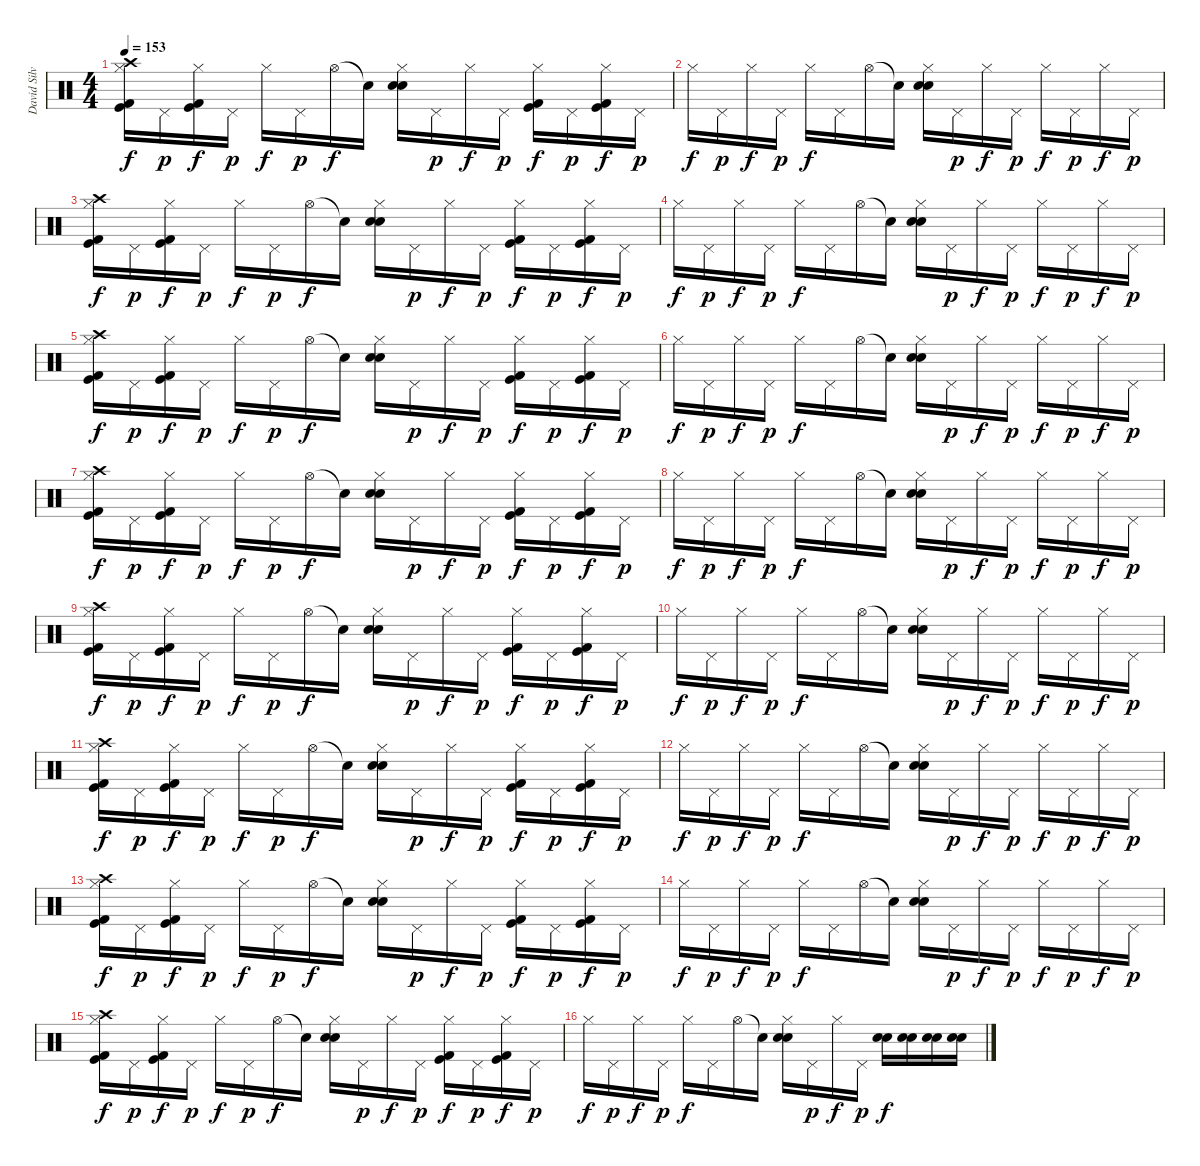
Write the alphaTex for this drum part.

\track ("David Silveria" "David Silv") {instrument percussion}
\staff {score}
\articulation defaults
\ts (4 4)
\tempo 153
\clef neutral
\ks c
("Crash high (hit)" "Hi-Hat (closed)" "Kick (hit) 2" "Kick (hit)").16{dy f} "Pedal Hi-Hat (hit)".16{dy p} ("Hi-Hat (closed)" "Kick (hit) 2" "Kick (hit)").16{dy f} "Pedal Hi-Hat (hit)".16{dy p} "Hi-Hat (closed)".16{dy f} "Pedal Hi-Hat (hit)".16{dy p} "Hi-Hat (open)".16{dy f} "Electric Snare (hit)"{t}.16 ("Electric Snare (hit)" "Hi-Hat (closed)" "Snare (hit) 2").16 "Pedal Hi-Hat (hit)".16{dy p} "Hi-Hat (closed)".16{dy f} "Pedal Hi-Hat (hit)".16{dy p} ("Hi-Hat (closed)" "Kick (hit) 2" "Kick (hit)").16{dy f} "Pedal Hi-Hat (hit)".16{dy p} ("Hi-Hat (closed)" "Kick (hit) 2" "Kick (hit)").16{dy f} "Pedal Hi-Hat (hit)".16{dy p} |
"Hi-Hat (closed)".16{dy f} "Pedal Hi-Hat (hit)".16{dy p} "Hi-Hat (closed)".16{dy f} "Pedal Hi-Hat (hit)".16{dy p} "Hi-Hat (closed)".16{dy f} "Pedal Hi-Hat (hit)".16 "Hi-Hat (open)".16 "Electric Snare (hit)"{t}.16 ("Electric Snare (hit)" "Hi-Hat (closed)" "Snare (hit) 2").16 "Pedal Hi-Hat (hit)".16{dy p} "Hi-Hat (closed)".16{dy f} "Pedal Hi-Hat (hit)".16{dy p} "Hi-Hat (closed)".16{dy f} "Pedal Hi-Hat (hit)".16{dy p} "Hi-Hat (closed)".16{dy f} "Pedal Hi-Hat (hit)".16{dy p} |
("Crash high (hit)" "Hi-Hat (closed)" "Kick (hit) 2" "Kick (hit)").16{dy f} "Pedal Hi-Hat (hit)".16{dy p} ("Hi-Hat (closed)" "Kick (hit) 2" "Kick (hit)").16{dy f} "Pedal Hi-Hat (hit)".16{dy p} "Hi-Hat (closed)".16{dy f} "Pedal Hi-Hat (hit)".16{dy p} "Hi-Hat (open)".16{dy f} "Electric Snare (hit)"{t}.16 ("Electric Snare (hit)" "Hi-Hat (closed)" "Snare (hit) 2").16 "Pedal Hi-Hat (hit)".16{dy p} "Hi-Hat (closed)".16{dy f} "Pedal Hi-Hat (hit)".16{dy p} ("Hi-Hat (closed)" "Kick (hit) 2" "Kick (hit)").16{dy f} "Pedal Hi-Hat (hit)".16{dy p} ("Hi-Hat (closed)" "Kick (hit) 2" "Kick (hit)").16{dy f} "Pedal Hi-Hat (hit)".16{dy p} |
"Hi-Hat (closed)".16{dy f} "Pedal Hi-Hat (hit)".16{dy p} "Hi-Hat (closed)".16{dy f} "Pedal Hi-Hat (hit)".16{dy p} "Hi-Hat (closed)".16{dy f} "Pedal Hi-Hat (hit)".16 "Hi-Hat (open)".16 "Electric Snare (hit)"{t}.16 ("Electric Snare (hit)" "Hi-Hat (closed)" "Snare (hit) 2").16 "Pedal Hi-Hat (hit)".16{dy p} "Hi-Hat (closed)".16{dy f} "Pedal Hi-Hat (hit)".16{dy p} "Hi-Hat (closed)".16{dy f} "Pedal Hi-Hat (hit)".16{dy p} "Hi-Hat (closed)".16{dy f} "Pedal Hi-Hat (hit)".16{dy p} |
("Crash high (hit)" "Hi-Hat (closed)" "Kick (hit) 2" "Kick (hit)").16{dy f} "Pedal Hi-Hat (hit)".16{dy p} ("Hi-Hat (closed)" "Kick (hit) 2" "Kick (hit)").16{dy f} "Pedal Hi-Hat (hit)".16{dy p} "Hi-Hat (closed)".16{dy f} "Pedal Hi-Hat (hit)".16{dy p} "Hi-Hat (open)".16{dy f} "Electric Snare (hit)"{t}.16 ("Electric Snare (hit)" "Hi-Hat (closed)" "Snare (hit) 2").16 "Pedal Hi-Hat (hit)".16{dy p} "Hi-Hat (closed)".16{dy f} "Pedal Hi-Hat (hit)".16{dy p} ("Hi-Hat (closed)" "Kick (hit) 2" "Kick (hit)").16{dy f} "Pedal Hi-Hat (hit)".16{dy p} ("Hi-Hat (closed)" "Kick (hit) 2" "Kick (hit)").16{dy f} "Pedal Hi-Hat (hit)".16{dy p} |
"Hi-Hat (closed)".16{dy f} "Pedal Hi-Hat (hit)".16{dy p} "Hi-Hat (closed)".16{dy f} "Pedal Hi-Hat (hit)".16{dy p} "Hi-Hat (closed)".16{dy f} "Pedal Hi-Hat (hit)".16 "Hi-Hat (open)".16 "Electric Snare (hit)"{t}.16 ("Electric Snare (hit)" "Hi-Hat (closed)" "Snare (hit) 2").16 "Pedal Hi-Hat (hit)".16{dy p} "Hi-Hat (closed)".16{dy f} "Pedal Hi-Hat (hit)".16{dy p} "Hi-Hat (closed)".16{dy f} "Pedal Hi-Hat (hit)".16{dy p} "Hi-Hat (closed)".16{dy f} "Pedal Hi-Hat (hit)".16{dy p} |
("Crash high (hit)" "Hi-Hat (closed)" "Kick (hit) 2" "Kick (hit)").16{dy f} "Pedal Hi-Hat (hit)".16{dy p} ("Hi-Hat (closed)" "Kick (hit) 2" "Kick (hit)").16{dy f} "Pedal Hi-Hat (hit)".16{dy p} "Hi-Hat (closed)".16{dy f} "Pedal Hi-Hat (hit)".16{dy p} "Hi-Hat (open)".16{dy f} "Electric Snare (hit)"{t}.16 ("Electric Snare (hit)" "Hi-Hat (closed)" "Snare (hit) 2").16 "Pedal Hi-Hat (hit)".16{dy p} "Hi-Hat (closed)".16{dy f} "Pedal Hi-Hat (hit)".16{dy p} ("Hi-Hat (closed)" "Kick (hit) 2" "Kick (hit)").16{dy f} "Pedal Hi-Hat (hit)".16{dy p} ("Hi-Hat (closed)" "Kick (hit) 2" "Kick (hit)").16{dy f} "Pedal Hi-Hat (hit)".16{dy p} |
"Hi-Hat (closed)".16{dy f} "Pedal Hi-Hat (hit)".16{dy p} "Hi-Hat (closed)".16{dy f} "Pedal Hi-Hat (hit)".16{dy p} "Hi-Hat (closed)".16{dy f} "Pedal Hi-Hat (hit)".16 "Hi-Hat (open)".16 "Electric Snare (hit)"{t}.16 ("Electric Snare (hit)" "Hi-Hat (closed)" "Snare (hit) 2").16 "Pedal Hi-Hat (hit)".16{dy p} "Hi-Hat (closed)".16{dy f} "Pedal Hi-Hat (hit)".16{dy p} "Hi-Hat (closed)".16{dy f} "Pedal Hi-Hat (hit)".16{dy p} "Hi-Hat (closed)".16{dy f} "Pedal Hi-Hat (hit)".16{dy p} |
("Crash high (hit)" "Hi-Hat (closed)" "Kick (hit) 2" "Kick (hit)").16{dy f} "Pedal Hi-Hat (hit)".16{dy p} ("Hi-Hat (closed)" "Kick (hit) 2" "Kick (hit)").16{dy f} "Pedal Hi-Hat (hit)".16{dy p} "Hi-Hat (closed)".16{dy f} "Pedal Hi-Hat (hit)".16{dy p} "Hi-Hat (open)".16{dy f} "Electric Snare (hit)"{t}.16 ("Electric Snare (hit)" "Hi-Hat (closed)" "Snare (hit) 2").16 "Pedal Hi-Hat (hit)".16{dy p} "Hi-Hat (closed)".16{dy f} "Pedal Hi-Hat (hit)".16{dy p} ("Hi-Hat (closed)" "Kick (hit) 2" "Kick (hit)").16{dy f} "Pedal Hi-Hat (hit)".16{dy p} ("Hi-Hat (closed)" "Kick (hit) 2" "Kick (hit)").16{dy f} "Pedal Hi-Hat (hit)".16{dy p} |
"Hi-Hat (closed)".16{dy f} "Pedal Hi-Hat (hit)".16{dy p} "Hi-Hat (closed)".16{dy f} "Pedal Hi-Hat (hit)".16{dy p} "Hi-Hat (closed)".16{dy f} "Pedal Hi-Hat (hit)".16 "Hi-Hat (open)".16 "Electric Snare (hit)"{t}.16 ("Electric Snare (hit)" "Hi-Hat (closed)" "Snare (hit) 2").16 "Pedal Hi-Hat (hit)".16{dy p} "Hi-Hat (closed)".16{dy f} "Pedal Hi-Hat (hit)".16{dy p} "Hi-Hat (closed)".16{dy f} "Pedal Hi-Hat (hit)".16{dy p} "Hi-Hat (closed)".16{dy f} "Pedal Hi-Hat (hit)".16{dy p} |
("Crash high (hit)" "Hi-Hat (closed)" "Kick (hit) 2" "Kick (hit)").16{dy f} "Pedal Hi-Hat (hit)".16{dy p} ("Hi-Hat (closed)" "Kick (hit) 2" "Kick (hit)").16{dy f} "Pedal Hi-Hat (hit)".16{dy p} "Hi-Hat (closed)".16{dy f} "Pedal Hi-Hat (hit)".16{dy p} "Hi-Hat (open)".16{dy f} "Electric Snare (hit)"{t}.16 ("Electric Snare (hit)" "Hi-Hat (closed)" "Snare (hit) 2").16 "Pedal Hi-Hat (hit)".16{dy p} "Hi-Hat (closed)".16{dy f} "Pedal Hi-Hat (hit)".16{dy p} ("Hi-Hat (closed)" "Kick (hit) 2" "Kick (hit)").16{dy f} "Pedal Hi-Hat (hit)".16{dy p} ("Hi-Hat (closed)" "Kick (hit) 2" "Kick (hit)").16{dy f} "Pedal Hi-Hat (hit)".16{dy p} |
"Hi-Hat (closed)".16{dy f} "Pedal Hi-Hat (hit)".16{dy p} "Hi-Hat (closed)".16{dy f} "Pedal Hi-Hat (hit)".16{dy p} "Hi-Hat (closed)".16{dy f} "Pedal Hi-Hat (hit)".16 "Hi-Hat (open)".16 "Electric Snare (hit)"{t}.16 ("Electric Snare (hit)" "Hi-Hat (closed)" "Snare (hit) 2").16 "Pedal Hi-Hat (hit)".16{dy p} "Hi-Hat (closed)".16{dy f} "Pedal Hi-Hat (hit)".16{dy p} "Hi-Hat (closed)".16{dy f} "Pedal Hi-Hat (hit)".16{dy p} "Hi-Hat (closed)".16{dy f} "Pedal Hi-Hat (hit)".16{dy p} |
("Crash high (hit)" "Hi-Hat (closed)" "Kick (hit) 2" "Kick (hit)").16{dy f} "Pedal Hi-Hat (hit)".16{dy p} ("Hi-Hat (closed)" "Kick (hit) 2" "Kick (hit)").16{dy f} "Pedal Hi-Hat (hit)".16{dy p} "Hi-Hat (closed)".16{dy f} "Pedal Hi-Hat (hit)".16{dy p} "Hi-Hat (open)".16{dy f} "Electric Snare (hit)"{t}.16 ("Electric Snare (hit)" "Hi-Hat (closed)" "Snare (hit) 2").16 "Pedal Hi-Hat (hit)".16{dy p} "Hi-Hat (closed)".16{dy f} "Pedal Hi-Hat (hit)".16{dy p} ("Hi-Hat (closed)" "Kick (hit) 2" "Kick (hit)").16{dy f} "Pedal Hi-Hat (hit)".16{dy p} ("Hi-Hat (closed)" "Kick (hit) 2" "Kick (hit)").16{dy f} "Pedal Hi-Hat (hit)".16{dy p} |
"Hi-Hat (closed)".16{dy f} "Pedal Hi-Hat (hit)".16{dy p} "Hi-Hat (closed)".16{dy f} "Pedal Hi-Hat (hit)".16{dy p} "Hi-Hat (closed)".16{dy f} "Pedal Hi-Hat (hit)".16 "Hi-Hat (open)".16 "Electric Snare (hit)"{t}.16 ("Electric Snare (hit)" "Hi-Hat (closed)" "Snare (hit) 2").16 "Pedal Hi-Hat (hit)".16{dy p} "Hi-Hat (closed)".16{dy f} "Pedal Hi-Hat (hit)".16{dy p} "Hi-Hat (closed)".16{dy f} "Pedal Hi-Hat (hit)".16{dy p} "Hi-Hat (closed)".16{dy f} "Pedal Hi-Hat (hit)".16{dy p} |
("Crash high (hit)" "Hi-Hat (closed)" "Kick (hit) 2" "Kick (hit)").16{dy f} "Pedal Hi-Hat (hit)".16{dy p} ("Hi-Hat (closed)" "Kick (hit) 2" "Kick (hit)").16{dy f} "Pedal Hi-Hat (hit)".16{dy p} "Hi-Hat (closed)".16{dy f} "Pedal Hi-Hat (hit)".16{dy p} "Hi-Hat (open)".16{dy f} "Electric Snare (hit)"{t}.16 ("Electric Snare (hit)" "Hi-Hat (closed)" "Snare (hit) 2").16 "Pedal Hi-Hat (hit)".16{dy p} "Hi-Hat (closed)".16{dy f} "Pedal Hi-Hat (hit)".16{dy p} ("Hi-Hat (closed)" "Kick (hit) 2" "Kick (hit)").16{dy f} "Pedal Hi-Hat (hit)".16{dy p} ("Hi-Hat (closed)" "Kick (hit) 2" "Kick (hit)").16{dy f} "Pedal Hi-Hat (hit)".16{dy p} |
"Hi-Hat (closed)".16{dy f} "Pedal Hi-Hat (hit)".16{dy p} "Hi-Hat (closed)".16{dy f} "Pedal Hi-Hat (hit)".16{dy p} "Hi-Hat (closed)".16{dy f} "Pedal Hi-Hat (hit)".16 "Hi-Hat (open)".16 "Electric Snare (hit)"{t}.16 ("Electric Snare (hit)" "Hi-Hat (closed)" "Snare (hit) 2").16 "Pedal Hi-Hat (hit)".16{dy p} "Hi-Hat (closed)".16{dy f} "Pedal Hi-Hat (hit)".16{dy p} ("Electric Snare (hit)" "Snare (hit) 2").16{dy f} ("Electric Snare (hit)" "Snare (hit) 2").16 ("Electric Snare (hit)" "Snare (hit) 2").16 ("Electric Snare (hit)" "Snare (hit) 2").16
